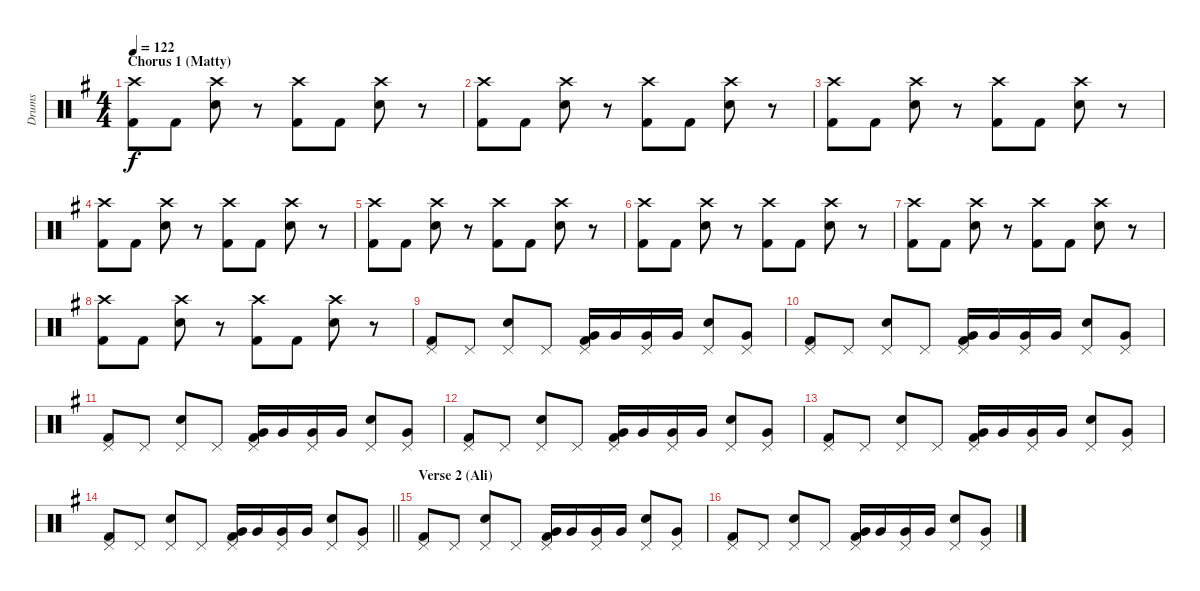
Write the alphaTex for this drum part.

\track ("Drums" "Drums") {instrument percussion bank 127}
\staff {score}
\articulation defaults
\ts (4 4)
\section ("" "Chorus 1 (Matty)")
\tempo 122
\clef neutral
\ks eminor
("Crash high (hit)" "Kick (hit) 2").8{dy f} "Kick (hit) 2".8 ("Crash high (hit)" "Snare (hit) 2").8 r.8 ("Crash high (hit)" "Kick (hit) 2").8 "Kick (hit) 2".8 ("Crash high (hit)" "Snare (hit) 2").8 r.8 |
("Crash high (hit)" "Kick (hit) 2").8 "Kick (hit) 2".8 ("Crash high (hit)" "Snare (hit) 2").8 r.8 ("Crash high (hit)" "Kick (hit) 2").8 "Kick (hit) 2".8 ("Crash high (hit)" "Snare (hit) 2").8 r.8 |
("Crash high (hit)" "Kick (hit) 2").8 "Kick (hit) 2".8 ("Crash high (hit)" "Snare (hit) 2").8 r.8 ("Crash high (hit)" "Kick (hit) 2").8 "Kick (hit) 2".8 ("Crash high (hit)" "Snare (hit) 2").8 r.8 |
("Crash high (hit)" "Kick (hit) 2").8 "Kick (hit) 2".8 ("Crash high (hit)" "Snare (hit) 2").8 r.8 ("Crash high (hit)" "Kick (hit) 2").8 "Kick (hit) 2".8 ("Crash high (hit)" "Snare (hit) 2").8 r.8 |
("Crash high (hit)" "Kick (hit) 2").8 "Kick (hit) 2".8 ("Crash high (hit)" "Snare (hit) 2").8 r.8 ("Crash high (hit)" "Kick (hit) 2").8 "Kick (hit) 2".8 ("Crash high (hit)" "Snare (hit) 2").8 r.8 |
("Crash high (hit)" "Kick (hit) 2").8 "Kick (hit) 2".8 ("Crash high (hit)" "Snare (hit) 2").8 r.8 ("Crash high (hit)" "Kick (hit) 2").8 "Kick (hit) 2".8 ("Crash high (hit)" "Snare (hit) 2").8 r.8 |
("Crash high (hit)" "Kick (hit) 2").8 "Kick (hit) 2".8 ("Crash high (hit)" "Snare (hit) 2").8 r.8 ("Crash high (hit)" "Kick (hit) 2").8 "Kick (hit) 2".8 ("Crash high (hit)" "Snare (hit) 2").8 r.8 |
("Crash high (hit)" "Kick (hit) 2").8 "Kick (hit) 2".8 ("Crash high (hit)" "Snare (hit) 2").8 r.8 ("Crash high (hit)" "Kick (hit) 2").8 "Kick (hit) 2".8 ("Crash high (hit)" "Snare (hit) 2").8 r.8 |
("Pedal Hi-Hat (hit)" "Kick (hit) 2").8 "Pedal Hi-Hat (hit)".8 ("Pedal Hi-Hat (hit)" "Snare (hit) 2").8 "Pedal Hi-Hat (hit)".8 ("Pedal Hi-Hat (hit)" "Very Low Tom (hit)" "Kick (hit) 2").16 "Very Low Tom (hit)".16 ("Pedal Hi-Hat (hit)" "Very Low Tom (hit)").16 "Very Low Tom (hit)".16 ("Pedal Hi-Hat (hit)" "Snare (hit) 2").8 ("Pedal Hi-Hat (hit)" "Very Low Tom (hit)").8 |
("Pedal Hi-Hat (hit)" "Kick (hit) 2").8 "Pedal Hi-Hat (hit)".8 ("Pedal Hi-Hat (hit)" "Snare (hit) 2").8 "Pedal Hi-Hat (hit)".8 ("Pedal Hi-Hat (hit)" "Very Low Tom (hit)" "Kick (hit) 2").16 "Very Low Tom (hit)".16 ("Pedal Hi-Hat (hit)" "Very Low Tom (hit)").16 "Very Low Tom (hit)".16 ("Pedal Hi-Hat (hit)" "Snare (hit) 2").8 ("Pedal Hi-Hat (hit)" "Very Low Tom (hit)").8 |
("Pedal Hi-Hat (hit)" "Kick (hit) 2").8 "Pedal Hi-Hat (hit)".8 ("Pedal Hi-Hat (hit)" "Snare (hit) 2").8 "Pedal Hi-Hat (hit)".8 ("Pedal Hi-Hat (hit)" "Very Low Tom (hit)" "Kick (hit) 2").16 "Very Low Tom (hit)".16 ("Pedal Hi-Hat (hit)" "Very Low Tom (hit)").16 "Very Low Tom (hit)".16 ("Pedal Hi-Hat (hit)" "Snare (hit) 2").8 ("Pedal Hi-Hat (hit)" "Very Low Tom (hit)").8 |
("Pedal Hi-Hat (hit)" "Kick (hit) 2").8 "Pedal Hi-Hat (hit)".8 ("Pedal Hi-Hat (hit)" "Snare (hit) 2").8 "Pedal Hi-Hat (hit)".8 ("Pedal Hi-Hat (hit)" "Very Low Tom (hit)" "Kick (hit) 2").16 "Very Low Tom (hit)".16 ("Pedal Hi-Hat (hit)" "Very Low Tom (hit)").16 "Very Low Tom (hit)".16 ("Pedal Hi-Hat (hit)" "Snare (hit) 2").8 ("Pedal Hi-Hat (hit)" "Very Low Tom (hit)").8 |
("Pedal Hi-Hat (hit)" "Kick (hit) 2").8 "Pedal Hi-Hat (hit)".8 ("Pedal Hi-Hat (hit)" "Snare (hit) 2").8 "Pedal Hi-Hat (hit)".8 ("Pedal Hi-Hat (hit)" "Very Low Tom (hit)" "Kick (hit) 2").16 "Very Low Tom (hit)".16 ("Pedal Hi-Hat (hit)" "Very Low Tom (hit)").16 "Very Low Tom (hit)".16 ("Pedal Hi-Hat (hit)" "Snare (hit) 2").8 ("Pedal Hi-Hat (hit)" "Very Low Tom (hit)").8 |
\barLineRight lightlight
("Pedal Hi-Hat (hit)" "Kick (hit) 2").8 "Pedal Hi-Hat (hit)".8 ("Pedal Hi-Hat (hit)" "Snare (hit) 2").8 "Pedal Hi-Hat (hit)".8 ("Pedal Hi-Hat (hit)" "Very Low Tom (hit)" "Kick (hit) 2").16 "Very Low Tom (hit)".16 ("Pedal Hi-Hat (hit)" "Very Low Tom (hit)").16 "Very Low Tom (hit)".16 ("Pedal Hi-Hat (hit)" "Snare (hit) 2").8 ("Pedal Hi-Hat (hit)" "Very Low Tom (hit)").8 |
\section ("" "Verse 2 (Ali)")
("Pedal Hi-Hat (hit)" "Kick (hit) 2").8 "Pedal Hi-Hat (hit)".8 ("Pedal Hi-Hat (hit)" "Snare (hit) 2").8 "Pedal Hi-Hat (hit)".8 ("Pedal Hi-Hat (hit)" "Very Low Tom (hit)" "Kick (hit) 2").16 "Very Low Tom (hit)".16 ("Pedal Hi-Hat (hit)" "Very Low Tom (hit)").16 "Very Low Tom (hit)".16 ("Pedal Hi-Hat (hit)" "Snare (hit) 2").8 ("Pedal Hi-Hat (hit)" "Very Low Tom (hit)").8 |
("Pedal Hi-Hat (hit)" "Kick (hit) 2").8 "Pedal Hi-Hat (hit)".8 ("Pedal Hi-Hat (hit)" "Snare (hit) 2").8 "Pedal Hi-Hat (hit)".8 ("Pedal Hi-Hat (hit)" "Very Low Tom (hit)" "Kick (hit) 2").16 "Very Low Tom (hit)".16 ("Pedal Hi-Hat (hit)" "Very Low Tom (hit)").16 "Very Low Tom (hit)".16 ("Pedal Hi-Hat (hit)" "Snare (hit) 2").8 ("Pedal Hi-Hat (hit)" "Very Low Tom (hit)").8
